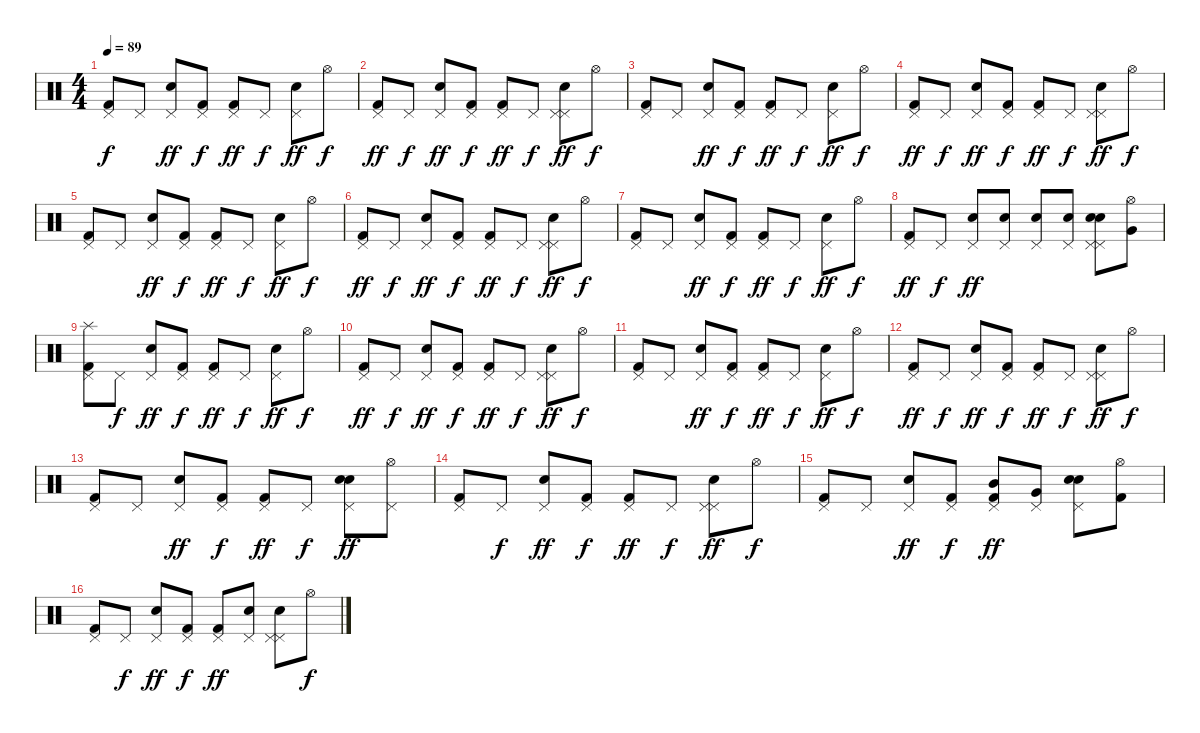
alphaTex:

\track "" {instrument percussion}
\staff {score}
\articulation defaults
\ts (4 4)
\tempo 89
\clef neutral
\ks c
("Kick (hit) 2" "Pedal Hi-Hat (hit)").8{dy f} "Pedal Hi-Hat (hit)".8 ("Pedal Hi-Hat (hit)" "Electric Snare (hit)").8{dy ff} ("Pedal Hi-Hat (hit)" "Kick (hit) 2").8{dy f} ("Kick (hit) 2" "Pedal Hi-Hat (hit)").8{dy ff} "Pedal Hi-Hat (hit)".8{dy f} ("Pedal Hi-Hat (hit)" "Electric Snare (hit)").8{dy ff} "Hi-Hat (open)".8{dy f} |
("Pedal Hi-Hat (hit)" "Kick (hit) 2").8{dy ff} "Pedal Hi-Hat (hit)".8{dy f} ("Electric Snare (hit)" "Pedal Hi-Hat (hit)").8{dy ff} ("Pedal Hi-Hat (hit)" "Kick (hit) 2").8{dy f} ("Pedal Hi-Hat (hit)" "Kick (hit) 2").8{dy ff} "Pedal Hi-Hat (hit)".8{dy f} ("Pedal Hi-Hat (hit)" "Electric Snare (hit)" "Pedal Hi-Hat (hit)").8{dy ff} "Hi-Hat (open)".8{dy f} |
("Kick (hit) 2" "Pedal Hi-Hat (hit)").8 "Pedal Hi-Hat (hit)".8 ("Pedal Hi-Hat (hit)" "Electric Snare (hit)").8{dy ff} ("Pedal Hi-Hat (hit)" "Kick (hit) 2").8{dy f} ("Kick (hit) 2" "Pedal Hi-Hat (hit)").8{dy ff} "Pedal Hi-Hat (hit)".8{dy f} ("Pedal Hi-Hat (hit)" "Electric Snare (hit)").8{dy ff} "Hi-Hat (open)".8{dy f} |
("Pedal Hi-Hat (hit)" "Kick (hit) 2").8{dy ff} "Pedal Hi-Hat (hit)".8{dy f} ("Electric Snare (hit)" "Pedal Hi-Hat (hit)").8{dy ff} ("Pedal Hi-Hat (hit)" "Kick (hit) 2").8{dy f} ("Pedal Hi-Hat (hit)" "Kick (hit) 2").8{dy ff} "Pedal Hi-Hat (hit)".8{dy f} ("Pedal Hi-Hat (hit)" "Electric Snare (hit)" "Pedal Hi-Hat (hit)").8{dy ff} "Hi-Hat (open)".8{dy f} |
("Kick (hit) 2" "Pedal Hi-Hat (hit)").8 "Pedal Hi-Hat (hit)".8 ("Pedal Hi-Hat (hit)" "Electric Snare (hit)").8{dy ff} ("Pedal Hi-Hat (hit)" "Kick (hit) 2").8{dy f} ("Kick (hit) 2" "Pedal Hi-Hat (hit)").8{dy ff} "Pedal Hi-Hat (hit)".8{dy f} ("Pedal Hi-Hat (hit)" "Electric Snare (hit)").8{dy ff} "Hi-Hat (open)".8{dy f} |
("Pedal Hi-Hat (hit)" "Kick (hit) 2").8{dy ff} "Pedal Hi-Hat (hit)".8{dy f} ("Electric Snare (hit)" "Pedal Hi-Hat (hit)").8{dy ff} ("Pedal Hi-Hat (hit)" "Kick (hit) 2").8{dy f} ("Pedal Hi-Hat (hit)" "Kick (hit) 2").8{dy ff} "Pedal Hi-Hat (hit)".8{dy f} ("Pedal Hi-Hat (hit)" "Electric Snare (hit)" "Pedal Hi-Hat (hit)").8{dy ff} "Hi-Hat (open)".8{dy f} |
("Kick (hit) 2" "Pedal Hi-Hat (hit)").8 "Pedal Hi-Hat (hit)".8 ("Pedal Hi-Hat (hit)" "Electric Snare (hit)").8{dy ff} ("Pedal Hi-Hat (hit)" "Kick (hit) 2").8{dy f} ("Kick (hit) 2" "Pedal Hi-Hat (hit)").8{dy ff} "Pedal Hi-Hat (hit)".8{dy f} ("Pedal Hi-Hat (hit)" "Electric Snare (hit)").8{dy ff} "Hi-Hat (open)".8{dy f} |
("Pedal Hi-Hat (hit)" "Kick (hit) 2").8{dy ff} "Pedal Hi-Hat (hit)".8{dy f} ("Electric Snare (hit)" "Pedal Hi-Hat (hit)").8{dy ff} ("Pedal Hi-Hat (hit)" "Electric Snare (hit)").8 ("Electric Snare (hit)" "Pedal Hi-Hat (hit)").8 ("Electric Snare (hit)" "Pedal Hi-Hat (hit)").8 ("Electric Snare (hit)" "Pedal Hi-Hat (hit)" "Electric Snare (hit)" "Pedal Hi-Hat (hit)").8 ("Very Low Tom (hit)" "Hi-Hat (open)").8 |
("Splash (hit)" "Kick (hit) 2" "Pedal Hi-Hat (hit)").8 "Pedal Hi-Hat (hit)".8{dy f} ("Pedal Hi-Hat (hit)" "Electric Snare (hit)").8{dy ff} ("Pedal Hi-Hat (hit)" "Kick (hit) 2").8{dy f} ("Kick (hit) 2" "Pedal Hi-Hat (hit)").8{dy ff} "Pedal Hi-Hat (hit)".8{dy f} ("Pedal Hi-Hat (hit)" "Electric Snare (hit)").8{dy ff} "Hi-Hat (open)".8{dy f} |
("Pedal Hi-Hat (hit)" "Kick (hit) 2").8{dy ff} "Pedal Hi-Hat (hit)".8{dy f} ("Electric Snare (hit)" "Pedal Hi-Hat (hit)").8{dy ff} ("Pedal Hi-Hat (hit)" "Kick (hit) 2").8{dy f} ("Pedal Hi-Hat (hit)" "Kick (hit) 2").8{dy ff} "Pedal Hi-Hat (hit)".8{dy f} ("Pedal Hi-Hat (hit)" "Electric Snare (hit)" "Pedal Hi-Hat (hit)").8{dy ff} "Hi-Hat (open)".8{dy f} |
("Kick (hit) 2" "Pedal Hi-Hat (hit)").8 "Pedal Hi-Hat (hit)".8 ("Pedal Hi-Hat (hit)" "Electric Snare (hit)").8{dy ff} ("Pedal Hi-Hat (hit)" "Kick (hit) 2").8{dy f} ("Kick (hit) 2" "Pedal Hi-Hat (hit)").8{dy ff} "Pedal Hi-Hat (hit)".8{dy f} ("Pedal Hi-Hat (hit)" "Electric Snare (hit)").8{dy ff} "Hi-Hat (open)".8{dy f} |
("Pedal Hi-Hat (hit)" "Kick (hit) 2").8{dy ff} "Pedal Hi-Hat (hit)".8{dy f} ("Electric Snare (hit)" "Pedal Hi-Hat (hit)").8{dy ff} ("Pedal Hi-Hat (hit)" "Kick (hit) 2").8{dy f} ("Pedal Hi-Hat (hit)" "Kick (hit) 2").8{dy ff} "Pedal Hi-Hat (hit)".8{dy f} ("Pedal Hi-Hat (hit)" "Electric Snare (hit)" "Pedal Hi-Hat (hit)").8{dy ff} "Hi-Hat (open)".8{dy f} |
("Kick (hit) 2" "Pedal Hi-Hat (hit)").8 "Pedal Hi-Hat (hit)".8 ("Pedal Hi-Hat (hit)" "Electric Snare (hit)").8{dy ff} ("Pedal Hi-Hat (hit)" "Kick (hit) 2").8{dy f} ("Kick (hit) 2" "Pedal Hi-Hat (hit)").8{dy ff} "Pedal Hi-Hat (hit)".8{dy f} ("Pedal Hi-Hat (hit)" "Electric Snare (hit)" "Electric Snare (hit)").8{dy ff} ("Pedal Hi-Hat (hit)" "Hi-Hat (open)").8 |
("Pedal Hi-Hat (hit)" "Kick (hit) 2").8 "Pedal Hi-Hat (hit)".8{dy f} ("Electric Snare (hit)" "Pedal Hi-Hat (hit)").8{dy ff} ("Pedal Hi-Hat (hit)" "Kick (hit) 2").8{dy f} ("Pedal Hi-Hat (hit)" "Kick (hit) 2").8{dy ff} "Pedal Hi-Hat (hit)".8{dy f} ("Pedal Hi-Hat (hit)" "Electric Snare (hit)" "Pedal Hi-Hat (hit)").8{dy ff} "Hi-Hat (open)".8{dy f} |
("Kick (hit) 2" "Pedal Hi-Hat (hit)").8 "Pedal Hi-Hat (hit)".8 ("Pedal Hi-Hat (hit)" "Electric Snare (hit)").8{dy ff} ("Pedal Hi-Hat (hit)" "Kick (hit) 2").8{dy f} ("Kick (hit) 2" "Pedal Hi-Hat (hit)" "Mid Tom (hit)").8{dy ff} ("Pedal Hi-Hat (hit)" "Very Low Tom (hit)").8 ("Pedal Hi-Hat (hit)" "Electric Snare (hit)" "Electric Snare (hit)").8 ("Kick (hit) 2" "Hi-Hat (open)").8 |
("Pedal Hi-Hat (hit)" "Kick (hit) 2").8 "Pedal Hi-Hat (hit)".8{dy f} ("Electric Snare (hit)" "Pedal Hi-Hat (hit)").8{dy ff} ("Pedal Hi-Hat (hit)" "Kick (hit) 2").8{dy f} ("Pedal Hi-Hat (hit)" "Kick (hit) 2").8{dy ff} ("Electric Snare (hit)" "Pedal Hi-Hat (hit)").8 ("Pedal Hi-Hat (hit)" "Electric Snare (hit)" "Pedal Hi-Hat (hit)").8 "Hi-Hat (open)".8{dy f}
